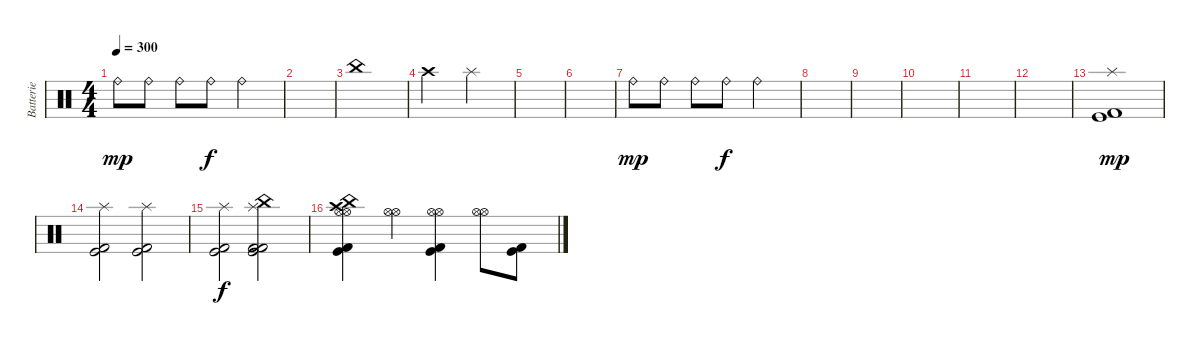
\track ("Batterie" "Batterie") {instrument percussion}
\staff {score}
\articulation defaults
\ts (4 4)
\tempo 300
\clef neutral
\ks c "Ride (bell)".8{dy mp} "Ride (bell)".8 "Ride (bell)".8 "Ride (bell)".8{dy f} "Ride (bell)".2
|
|
"China (hit)".1 |
"Crash high (hit)".2 "Splash (hit)".2 |
|
|
"Ride (bell)".8{dy mp} "Ride (bell)".8 "Ride (bell)".8 "Ride (bell)".8{dy f} "Ride (bell)".2 |
|
|
|
|
|
("Splash (hit)" "Kick (hit) 2" "Kick (hit)").1{dy mp} |
("Splash (hit)" "Kick (hit) 2" "Kick (hit)").2 ("Splash (hit)" "Kick (hit) 2" "Kick (hit)").2 |
("Splash (hit)" "Kick (hit) 2" "Kick (hit)").2{dy f} ("Splash (hit)" "China (hit)" "Kick (hit) 2" "Kick (hit) 2" "Kick (hit)").2 |
("Hi-Hat (open)" "Hi-Hat (open)" "Crash high (hit)" "China (hit)" "Kick (hit)" "Kick (hit) 2").4 ("Hi-Hat (open)" "Hi-Hat (open)").4 ("Hi-Hat (open)" "Hi-Hat (open)" "Kick (hit) 2" "Kick (hit)").4 ("Hi-Hat (open)" "Hi-Hat (open)").8 ("Kick (hit)" "Kick (hit) 2").8
